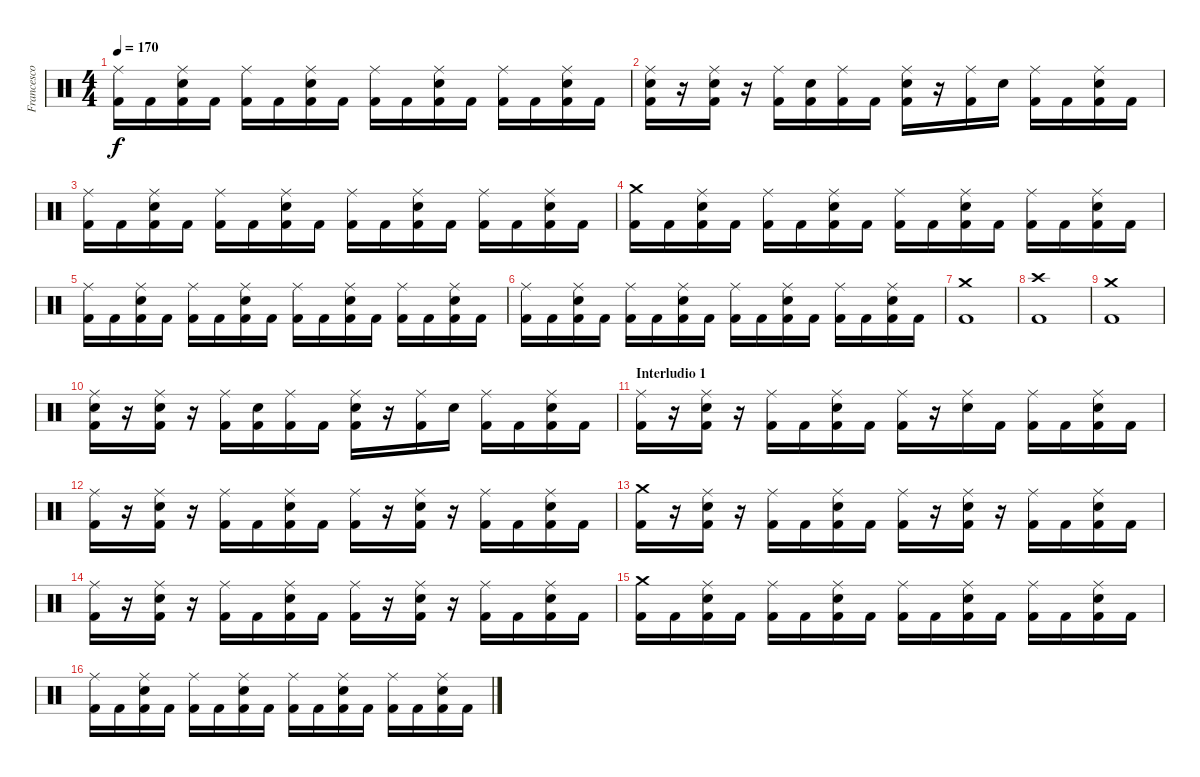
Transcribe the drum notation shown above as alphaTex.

\track ("Francesco Tresa" "Francesco ") {instrument percussion}
\staff {score}
\articulation defaults
\ts (4 4)
\tempo 170
\clef neutral
\ks c
("Ride (middle)" "Kick (hit) 2").16{dy f} "Kick (hit) 2".16 ("Ride (middle)" "Kick (hit) 2" "Electric Snare (hit)").16 "Kick (hit) 2".16 ("Ride (middle)" "Kick (hit) 2").16 "Kick (hit) 2".16 ("Ride (middle)" "Kick (hit) 2" "Electric Snare (hit)").16 "Kick (hit) 2".16 ("Ride (middle)" "Kick (hit) 2").16 "Kick (hit) 2".16 ("Ride (middle)" "Kick (hit) 2" "Electric Snare (hit)").16 "Kick (hit) 2".16 ("Ride (middle)" "Kick (hit) 2").16 "Kick (hit) 2".16 ("Ride (middle)" "Kick (hit) 2" "Electric Snare (hit)").16 "Kick (hit) 2".16 |
("Ride (middle)" "Kick (hit) 2" "Electric Snare (hit)").16 r.16 ("Ride (middle)" "Kick (hit) 2" "Electric Snare (hit)").16 r.16 ("Ride (middle)" "Kick (hit) 2").16 ("Kick (hit) 2" "Electric Snare (hit)").16 ("Ride (middle)" "Kick (hit) 2").16 "Kick (hit) 2".16 ("Ride (middle)" "Kick (hit) 2" "Electric Snare (hit)").16 r.16 ("Ride (middle)" "Kick (hit) 2").16 "Electric Snare (hit)".16 ("Ride (middle)" "Kick (hit) 2").16 "Kick (hit) 2".16 ("Ride (middle)" "Kick (hit) 2" "Electric Snare (hit)").16 "Kick (hit) 2".16 |
("Ride (middle)" "Kick (hit) 2").16 "Kick (hit) 2".16 ("Ride (middle)" "Kick (hit) 2" "Electric Snare (hit)").16 "Kick (hit) 2".16 ("Ride (middle)" "Kick (hit) 2").16 "Kick (hit) 2".16 ("Ride (middle)" "Kick (hit) 2" "Electric Snare (hit)").16 "Kick (hit) 2".16 ("Ride (middle)" "Kick (hit) 2").16 "Kick (hit) 2".16 ("Ride (middle)" "Kick (hit) 2" "Electric Snare (hit)").16 "Kick (hit) 2".16 ("Ride (middle)" "Kick (hit) 2").16 "Kick (hit) 2".16 ("Ride (middle)" "Kick (hit) 2" "Electric Snare (hit)").16 "Kick (hit) 2".16 |
("Crash medium (hit)" "Kick (hit) 2").16 "Kick (hit) 2".16 ("Ride (middle)" "Kick (hit) 2" "Electric Snare (hit)").16 "Kick (hit) 2".16 ("Ride (middle)" "Kick (hit) 2").16 "Kick (hit) 2".16 ("Ride (middle)" "Kick (hit) 2" "Electric Snare (hit)").16 "Kick (hit) 2".16 ("Ride (middle)" "Kick (hit) 2").16 "Kick (hit) 2".16 ("Ride (middle)" "Kick (hit) 2" "Electric Snare (hit)").16 "Kick (hit) 2".16 ("Ride (middle)" "Kick (hit) 2").16 "Kick (hit) 2".16 ("Ride (middle)" "Kick (hit) 2" "Electric Snare (hit)").16 "Kick (hit) 2".16 |
("Ride (middle)" "Kick (hit) 2").16 "Kick (hit) 2".16 ("Ride (middle)" "Kick (hit) 2" "Electric Snare (hit)").16 "Kick (hit) 2".16 ("Ride (middle)" "Kick (hit) 2").16 "Kick (hit) 2".16 ("Ride (middle)" "Kick (hit) 2" "Electric Snare (hit)").16 "Kick (hit) 2".16 ("Ride (middle)" "Kick (hit) 2").16 "Kick (hit) 2".16 ("Ride (middle)" "Kick (hit) 2" "Electric Snare (hit)").16 "Kick (hit) 2".16 ("Ride (middle)" "Kick (hit) 2").16 "Kick (hit) 2".16 ("Ride (middle)" "Kick (hit) 2" "Electric Snare (hit)").16 "Kick (hit) 2".16 |
("Ride (middle)" "Kick (hit) 2").16 "Kick (hit) 2".16 ("Ride (middle)" "Kick (hit) 2" "Electric Snare (hit)").16 "Kick (hit) 2".16 ("Ride (middle)" "Kick (hit) 2").16 "Kick (hit) 2".16 ("Ride (middle)" "Kick (hit) 2" "Electric Snare (hit)").16 "Kick (hit) 2".16 ("Ride (middle)" "Kick (hit) 2").16 "Kick (hit) 2".16 ("Ride (middle)" "Kick (hit) 2" "Electric Snare (hit)").16 "Kick (hit) 2".16 ("Ride (middle)" "Kick (hit) 2").16 "Kick (hit) 2".16 ("Ride (middle)" "Kick (hit) 2" "Electric Snare (hit)").16 "Kick (hit) 2".16 |
("Crash medium (hit)" "Kick (hit) 2").1 |
("Crash high (hit)" "Kick (hit) 2").1 |
("Crash medium (hit)" "Kick (hit) 2").1 |
("Ride (middle)" "Kick (hit) 2" "Electric Snare (hit)").16 r.16 ("Ride (middle)" "Kick (hit) 2" "Electric Snare (hit)").16 r.16 ("Ride (middle)" "Kick (hit) 2").16 ("Kick (hit) 2" "Electric Snare (hit)").16 ("Ride (middle)" "Kick (hit) 2").16 "Kick (hit) 2".16 ("Ride (middle)" "Kick (hit) 2" "Electric Snare (hit)").16 r.16 ("Ride (middle)" "Kick (hit) 2").16 "Electric Snare (hit)".16 ("Ride (middle)" "Kick (hit) 2").16 "Kick (hit) 2".16 ("Ride (middle)" "Kick (hit) 2" "Electric Snare (hit)").16 "Kick (hit) 2".16 |
\section ("" "Interludio 1")
("Ride (middle)" "Kick (hit) 2").16 r.16 ("Ride (middle)" "Kick (hit) 2" "Electric Snare (hit)").16 r.16 ("Ride (middle)" "Kick (hit) 2").16 "Kick (hit) 2".16 ("Ride (middle)" "Kick (hit) 2" "Electric Snare (hit)").16 "Kick (hit) 2".16 ("Ride (middle)" "Kick (hit) 2").16 r.16 ("Ride (middle)" "Electric Snare (hit)").16 "Kick (hit) 2".16 ("Ride (middle)" "Kick (hit) 2").16 "Kick (hit) 2".16 ("Ride (middle)" "Kick (hit) 2" "Electric Snare (hit)").16 "Kick (hit) 2".16 |
("Ride (middle)" "Kick (hit) 2").16 r.16 ("Ride (middle)" "Kick (hit) 2" "Electric Snare (hit)").16 r.16 ("Ride (middle)" "Kick (hit) 2").16 "Kick (hit) 2".16 ("Ride (middle)" "Kick (hit) 2" "Electric Snare (hit)").16 "Kick (hit) 2".16 ("Ride (middle)" "Kick (hit) 2").16 r.16 ("Ride (middle)" "Kick (hit) 2" "Electric Snare (hit)").16 r.16 ("Ride (middle)" "Kick (hit) 2").16 "Kick (hit) 2".16 ("Ride (middle)" "Kick (hit) 2" "Electric Snare (hit)").16 "Kick (hit) 2".16 |
("Crash medium (hit)" "Kick (hit) 2").16 r.16 ("Ride (middle)" "Kick (hit) 2" "Electric Snare (hit)").16 r.16 ("Ride (middle)" "Kick (hit) 2").16 "Kick (hit) 2".16 ("Ride (middle)" "Kick (hit) 2" "Electric Snare (hit)").16 "Kick (hit) 2".16 ("Ride (middle)" "Kick (hit) 2").16 r.16 ("Ride (middle)" "Kick (hit) 2" "Electric Snare (hit)").16 r.16 ("Ride (middle)" "Kick (hit) 2").16 "Kick (hit) 2".16 ("Ride (middle)" "Kick (hit) 2" "Electric Snare (hit)").16 "Kick (hit) 2".16 |
("Ride (middle)" "Kick (hit) 2").16 r.16 ("Ride (middle)" "Kick (hit) 2" "Electric Snare (hit)").16 r.16 ("Ride (middle)" "Kick (hit) 2").16 "Kick (hit) 2".16 ("Ride (middle)" "Kick (hit) 2" "Electric Snare (hit)").16 "Kick (hit) 2".16 ("Ride (middle)" "Kick (hit) 2").16 r.16 ("Ride (middle)" "Kick (hit) 2" "Electric Snare (hit)").16 r.16 ("Ride (middle)" "Kick (hit) 2").16 "Kick (hit) 2".16 ("Ride (middle)" "Kick (hit) 2" "Electric Snare (hit)").16 "Kick (hit) 2".16 |
("Crash medium (hit)" "Kick (hit) 2").16 "Kick (hit) 2".16 ("Ride (middle)" "Kick (hit) 2" "Electric Snare (hit)").16 "Kick (hit) 2".16 ("Ride (middle)" "Kick (hit) 2").16 "Kick (hit) 2".16 ("Ride (middle)" "Kick (hit) 2" "Electric Snare (hit)").16 "Kick (hit) 2".16 ("Ride (middle)" "Kick (hit) 2").16 "Kick (hit) 2".16 ("Ride (middle)" "Kick (hit) 2" "Electric Snare (hit)").16 "Kick (hit) 2".16 ("Ride (middle)" "Kick (hit) 2").16 "Kick (hit) 2".16 ("Ride (middle)" "Kick (hit) 2" "Electric Snare (hit)").16 "Kick (hit) 2".16 |
("Ride (middle)" "Kick (hit) 2").16 "Kick (hit) 2".16 ("Ride (middle)" "Kick (hit) 2" "Electric Snare (hit)").16 "Kick (hit) 2".16 ("Ride (middle)" "Kick (hit) 2").16 "Kick (hit) 2".16 ("Ride (middle)" "Kick (hit) 2" "Electric Snare (hit)").16 "Kick (hit) 2".16 ("Ride (middle)" "Kick (hit) 2").16 "Kick (hit) 2".16 ("Ride (middle)" "Kick (hit) 2" "Electric Snare (hit)").16 "Kick (hit) 2".16 ("Ride (middle)" "Kick (hit) 2").16 "Kick (hit) 2".16 ("Ride (middle)" "Kick (hit) 2" "Electric Snare (hit)").16 "Kick (hit) 2".16
